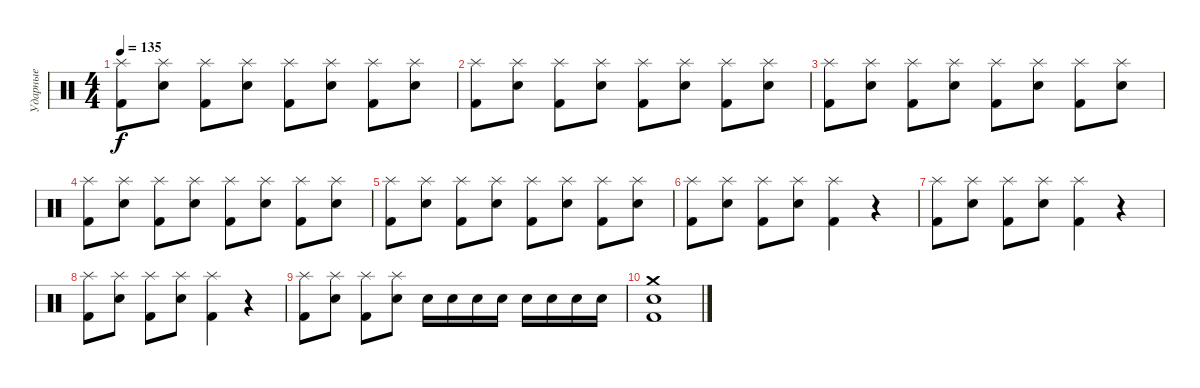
\track ("Ударные" "Ударные") {instrument percussion}
\staff {score}
\articulation defaults
\ts (4 4)
\tempo 135
\clef neutral
\ks c
("Splash (hit)" "Kick (hit) 2").8{dy f} ("Splash (hit)" "Snare (hit) 2").8 ("Splash (hit)" "Kick (hit) 2").8 ("Splash (hit)" "Snare (hit) 2").8 ("Splash (hit)" "Kick (hit) 2").8 ("Splash (hit)" "Snare (hit) 2").8 ("Splash (hit)" "Kick (hit) 2").8 ("Splash (hit)" "Snare (hit) 2").8 |
("Splash (hit)" "Kick (hit) 2").8 ("Splash (hit)" "Snare (hit) 2").8 ("Splash (hit)" "Kick (hit) 2").8 ("Splash (hit)" "Snare (hit) 2").8 ("Splash (hit)" "Kick (hit) 2").8 ("Splash (hit)" "Snare (hit) 2").8 ("Splash (hit)" "Kick (hit) 2").8 ("Splash (hit)" "Snare (hit) 2").8 |
("Splash (hit)" "Kick (hit) 2").8 ("Splash (hit)" "Snare (hit) 2").8 ("Splash (hit)" "Kick (hit) 2").8 ("Splash (hit)" "Snare (hit) 2").8 ("Splash (hit)" "Kick (hit) 2").8 ("Splash (hit)" "Snare (hit) 2").8 ("Splash (hit)" "Kick (hit) 2").8 ("Splash (hit)" "Snare (hit) 2").8 |
("Splash (hit)" "Kick (hit) 2").8 ("Splash (hit)" "Snare (hit) 2").8 ("Splash (hit)" "Kick (hit) 2").8 ("Splash (hit)" "Snare (hit) 2").8 ("Splash (hit)" "Kick (hit) 2").8 ("Splash (hit)" "Snare (hit) 2").8 ("Splash (hit)" "Kick (hit) 2").8 ("Splash (hit)" "Snare (hit) 2").8 |
("Splash (hit)" "Kick (hit) 2").8 ("Splash (hit)" "Snare (hit) 2").8 ("Splash (hit)" "Kick (hit) 2").8 ("Splash (hit)" "Snare (hit) 2").8 ("Splash (hit)" "Kick (hit) 2").8 ("Splash (hit)" "Snare (hit) 2").8 ("Splash (hit)" "Kick (hit) 2").8 ("Splash (hit)" "Snare (hit) 2").8 |
("Splash (hit)" "Kick (hit) 2").8 ("Splash (hit)" "Snare (hit) 2").8 ("Splash (hit)" "Kick (hit) 2").8 ("Splash (hit)" "Snare (hit) 2").8 ("Splash (hit)" "Kick (hit) 2").4 r.4 |
("Splash (hit)" "Kick (hit) 2").8 ("Splash (hit)" "Snare (hit) 2").8 ("Splash (hit)" "Kick (hit) 2").8 ("Splash (hit)" "Snare (hit) 2").8 ("Splash (hit)" "Kick (hit) 2").4 r.4 |
("Splash (hit)" "Kick (hit) 2").8 ("Splash (hit)" "Snare (hit) 2").8 ("Splash (hit)" "Kick (hit) 2").8 ("Splash (hit)" "Snare (hit) 2").8 ("Splash (hit)" "Kick (hit) 2").4 r.4 |
("Splash (hit)" "Kick (hit) 2").8 ("Splash (hit)" "Snare (hit) 2").8 ("Splash (hit)" "Kick (hit) 2").8 ("Splash (hit)" "Snare (hit) 2").8 "Snare (hit) 2".16 "Snare (hit) 2".16 "Snare (hit) 2".16 "Snare (hit) 2".16 "Snare (hit) 2".16 "Snare (hit) 2".16 "Snare (hit) 2".16 "Snare (hit) 2".16 |
("Crash medium (hit)" "Snare (hit) 2" "Kick (hit) 2").1
